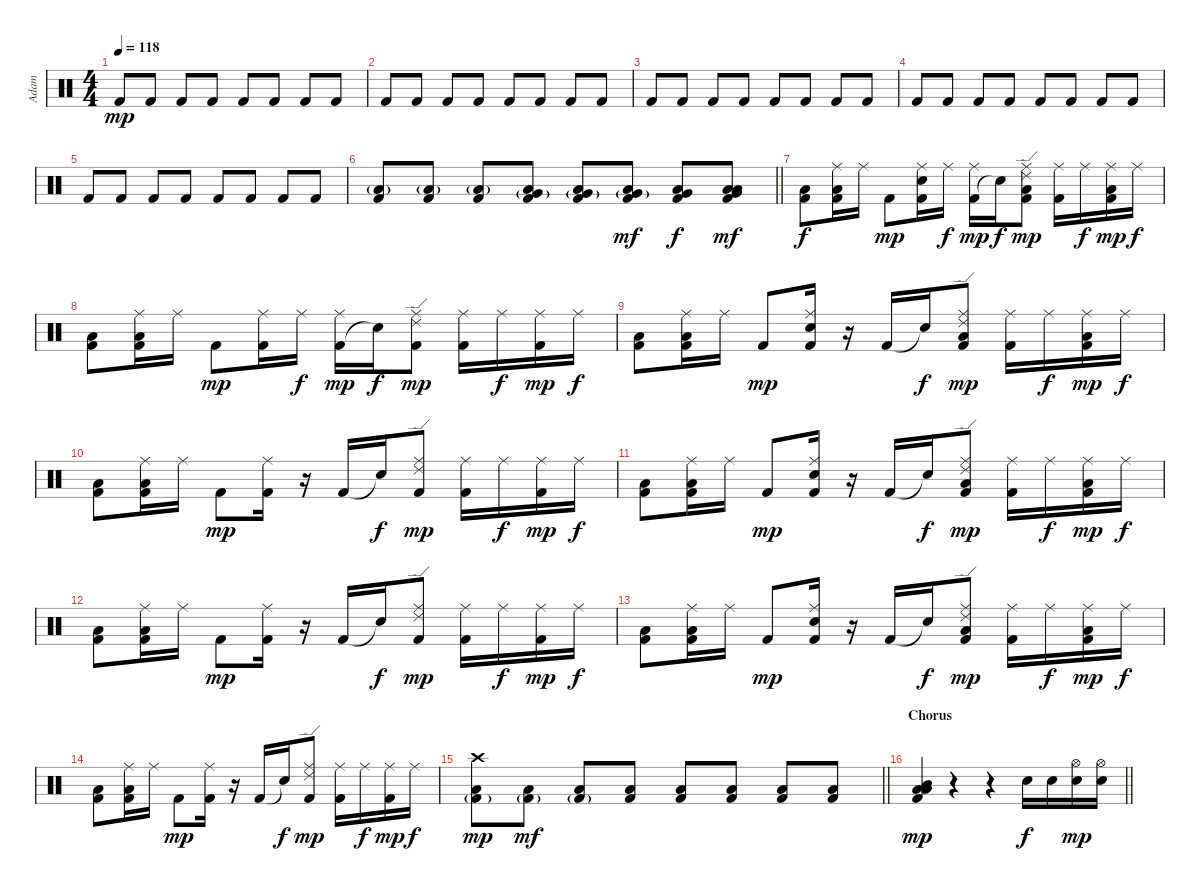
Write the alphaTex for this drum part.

\track ("Adam" "Adam") {instrument percussion}
\staff {score}
\articulation defaults
\ts (4 4)
\tempo 118
\clef neutral
\ks c "Kick (hit) 2".8{dy mp} "Kick (hit) 2".8 "Kick (hit) 2".8 "Kick (hit) 2".8 "Kick (hit) 2".8 "Kick (hit) 2".8 "Kick (hit) 2".8 "Kick (hit) 2".8
|
"Kick (hit) 2".8 "Kick (hit) 2".8 "Kick (hit) 2".8 "Kick (hit) 2".8 "Kick (hit) 2".8 "Kick (hit) 2".8 "Kick (hit) 2".8 "Kick (hit) 2".8 |
"Kick (hit) 2".8 "Kick (hit) 2".8 "Kick (hit) 2".8 "Kick (hit) 2".8 "Kick (hit) 2".8 "Kick (hit) 2".8 "Kick (hit) 2".8 "Kick (hit) 2".8 |
"Kick (hit) 2".8 "Kick (hit) 2".8 "Kick (hit) 2".8 "Kick (hit) 2".8 "Kick (hit) 2".8 "Kick (hit) 2".8 "Kick (hit) 2".8 "Kick (hit) 2".8 |
"Kick (hit) 2".8 "Kick (hit) 2".8 "Kick (hit) 2".8 "Kick (hit) 2".8 "Kick (hit) 2".8 "Kick (hit) 2".8 "Kick (hit) 2".8 "Kick (hit) 2".8 |
\barLineRight lightlight
("Kick (hit) 2" "Low Floor Tom (hit)"{g}).8{bd 60} ("Kick (hit) 2" "Low Floor Tom (hit)"{g}).8{bd 60} ("Kick (hit) 2" "Low Floor Tom (hit)"{g}).8{bd 60} ("Kick (hit) 2" "Low Floor Tom (hit)" "Very Low Tom (hit)"{g}).8 ("Kick (hit) 2" "Low Floor Tom (hit)" "Very Low Tom (hit)"{g}).8{bd 60} ("Kick (hit) 2" "Low Floor Tom (hit)" "Very Low Tom (hit)"{g}).8{bd 60 dy mf} ("Kick (hit) 2" "Low Floor Tom (hit)" "Very Low Tom (hit)").8{bd 60 dy f} ("Kick (hit) 2" "Low Floor Tom (hit)" "Very Low Tom (hit)" "Low Tom (hit)").8{bd 60 dy mf} |
("Kick (hit) 2" "Low Floor Tom (hit)").8{bd 60 dy f} ("Kick (hit) 2" "Low Floor Tom (hit)" "Ride (middle)").16{bd 60} "Ride (middle)".16 "Kick (hit) 2".8{dy mp} ("Kick (hit) 2" "Snare (hit) 2" "Ride (middle)").16 "Ride (middle)".16{dy f} ("Kick (hit) 2" "Ride (middle)").16{dy mp} "Snare (hit)"{t}.16{dy f} ("Kick (hit) 2" "Low Floor Tom (hit)" "Ride (edge) 2" "Ride (middle)").8{bd 60 dy mp} ("Kick (hit) 2" "Ride (middle)").16 "Ride (middle)".16{dy f} ("Kick (hit) 2" "Low Floor Tom (hit)" "Ride (middle)").16{bd 60 dy mp} "Ride (middle)".16{dy f} |
("Kick (hit) 2" "Low Floor Tom (hit)").8{bd 60} ("Kick (hit) 2" "Low Floor Tom (hit)" "Ride (middle)").16{bd 60} "Ride (middle)".16 "Kick (hit) 2".8{dy mp} ("Kick (hit) 2" "Ride (middle)").16 "Ride (middle)".16{dy f} ("Kick (hit) 2" "Ride (middle)").16{dy mp} "Snare (hit)"{t}.16{dy f} ("Kick (hit) 2" "Ride (edge) 2" "Ride (middle)").8{dy mp} ("Kick (hit) 2" "Ride (middle)").16 "Ride (middle)".16{dy f} ("Kick (hit) 2" "Ride (middle)").16{dy mp} "Ride (middle)".16{dy f} |
("Kick (hit) 2" "Low Floor Tom (hit)").8{bd 60} ("Kick (hit) 2" "Low Floor Tom (hit)" "Ride (middle)").16{bd 60} "Ride (middle)".16 "Kick (hit) 2".8{dy mp} ("Kick (hit) 2" "Snare (hit) 2" "Ride (middle)").16 r.16 "Kick (hit) 2".16 "Snare (hit)"{t}.16{dy f} ("Kick (hit) 2" "Low Floor Tom (hit)" "Ride (edge) 2" "Ride (middle)").8{bd 60 dy mp} ("Kick (hit) 2" "Ride (middle)").16 "Ride (middle)".16{dy f} ("Kick (hit) 2" "Low Floor Tom (hit)" "Ride (middle)").16{bd 60 dy mp} "Ride (middle)".16{dy f} |
("Kick (hit) 2" "Low Floor Tom (hit)").8{bd 60} ("Kick (hit) 2" "Low Floor Tom (hit)" "Ride (middle)").16{bd 60} "Ride (middle)".16 "Kick (hit) 2".8{dy mp} ("Kick (hit) 2" "Ride (middle)").16 r.16 "Kick (hit) 2".16 "Snare (hit)"{t}.16{dy f} ("Kick (hit) 2" "Ride (edge) 2" "Ride (middle)").8{dy mp} ("Kick (hit) 2" "Ride (middle)").16 "Ride (middle)".16{dy f} ("Kick (hit) 2" "Ride (middle)").16{dy mp} "Ride (middle)".16{dy f} |
("Kick (hit) 2" "Low Floor Tom (hit)").8{bd 60} ("Kick (hit) 2" "Low Floor Tom (hit)" "Ride (middle)").16{bd 60} "Ride (middle)".16 "Kick (hit) 2".8{dy mp} ("Kick (hit) 2" "Snare (hit) 2" "Ride (middle)").16 r.16 "Kick (hit) 2".16 "Snare (hit)"{t}.16{dy f} ("Kick (hit) 2" "Low Floor Tom (hit)" "Ride (edge) 2" "Ride (middle)").8{bd 60 dy mp} ("Kick (hit) 2" "Ride (middle)").16 "Ride (middle)".16{dy f} ("Kick (hit) 2" "Low Floor Tom (hit)" "Ride (middle)").16{bd 60 dy mp} "Ride (middle)".16{dy f} |
("Kick (hit) 2" "Low Floor Tom (hit)").8{bd 60} ("Kick (hit) 2" "Low Floor Tom (hit)" "Ride (middle)").16{bd 60} "Ride (middle)".16 "Kick (hit) 2".8{dy mp} ("Kick (hit) 2" "Ride (middle)").16 r.16 "Kick (hit) 2".16 "Snare (hit)"{t}.16{dy f} ("Kick (hit) 2" "Ride (edge) 2" "Ride (middle)").8{dy mp} ("Kick (hit) 2" "Ride (middle)").16 "Ride (middle)".16{dy f} ("Kick (hit) 2" "Ride (middle)").16{dy mp} "Ride (middle)".16{dy f} |
("Kick (hit) 2" "Low Floor Tom (hit)").8{bd 60} ("Kick (hit) 2" "Low Floor Tom (hit)" "Ride (middle)").16{bd 60} "Ride (middle)".16 "Kick (hit) 2".8{dy mp} ("Kick (hit) 2" "Snare (hit) 2" "Ride (middle)").16 r.16 "Kick (hit) 2".16 "Snare (hit)"{t}.16{dy f} ("Kick (hit) 2" "Low Floor Tom (hit)" "Ride (edge) 2" "Ride (middle)").8{bd 60 dy mp} ("Kick (hit) 2" "Ride (middle)").16 "Ride (middle)".16{dy f} ("Kick (hit) 2" "Low Floor Tom (hit)" "Ride (middle)").16{bd 60 dy mp} "Ride (middle)".16{dy f} |
("Kick (hit) 2" "Low Floor Tom (hit)").8{bd 60} ("Kick (hit) 2" "Low Floor Tom (hit)" "Ride (middle)").16{bd 60} "Ride (middle)".16 "Kick (hit) 2".8{dy mp} ("Kick (hit) 2" "Ride (middle)").16 r.16 "Kick (hit) 2".16 "Snare (hit)"{t}.16{dy f} ("Kick (hit) 2" "Ride (edge) 2" "Ride (middle)").8{dy mp} ("Kick (hit) 2" "Ride (middle)").16 "Ride (middle)".16{dy f} ("Kick (hit) 2" "Ride (middle)").16{dy mp} "Ride (middle)".16{dy f} |
\barLineRight lightlight
("Kick (hit) 2"{g} "Low Floor Tom (hit)" "Crash high (hit)").8{bd 60 dy mp} ("Kick (hit) 2"{g} "Low Floor Tom (hit)").8{bd 60 dy mf} ("Kick (hit) 2"{g} "Low Floor Tom (hit)").8{bd 60} ("Kick (hit) 2" "Low Floor Tom (hit)").8{bd 60} ("Kick (hit) 2" "Low Floor Tom (hit)").8{bd 60} ("Kick (hit) 2" "Low Floor Tom (hit)").8{bd 60} ("Kick (hit) 2" "Low Floor Tom (hit)").8{bd 60} ("Kick (hit) 2" "Low Floor Tom (hit)").8{bd 60} |
\section ("" "Chorus")
\barLineRight lightlight
("Kick (hit) 2" "Low Floor Tom (hit)" "Low Tom (hit)" "Mid Tom (hit)").4{bd 60 dy mp} r.4 r.4 "Snare (hit) 2".16{dy f} "Snare (hit) 2".16 ("Hi-Hat (open)" "Snare (hit) 2").16{dy mp} ("Hi-Hat (open)" "Snare (hit) 2").16
